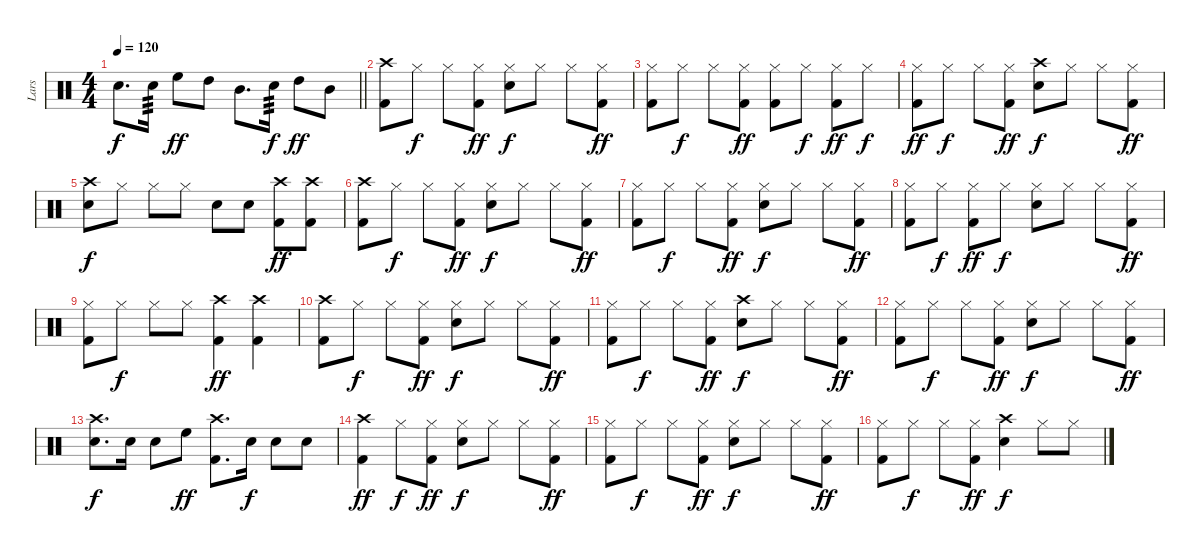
\track ("Lars" "Lars") {instrument percussion}
\staff {score}
\articulation defaults
\ts (4 4)
\tempo 120
\clef neutral
\barLineRight lightlight
\ks c "Snare (hit) 2".8{d dy f} "Snare (hit) 2".16{tp 3} "High Floor Tom (hit)".8{dy ff} "High Tom (hit)".8 "Mid Tom (hit)".8{d} "Snare (hit) 2".16{tp 3 dy f} "High Tom (hit)".8{dy ff} "Mid Tom (hit)".8
|
("Crash high (hit)" "Kick (hit) 2").8 "Hi-Hat (closed)".8{dy f} "Hi-Hat (closed)".8 ("Hi-Hat (closed)" "Kick (hit) 2").8{dy ff} ("Hi-Hat (closed)" "Snare (hit) 2").8{dy f} "Hi-Hat (closed)".8 "Hi-Hat (closed)".8 ("Hi-Hat (closed)" "Kick (hit) 2").8{dy ff} |
("Hi-Hat (closed)" "Kick (hit) 2").8 "Hi-Hat (closed)".8{dy f} "Hi-Hat (closed)".8 ("Hi-Hat (closed)" "Kick (hit) 2").8{dy ff} ("Hi-Hat (closed)" "Kick (hit) 2").8 "Hi-Hat (closed)".8{dy f} ("Hi-Hat (closed)" "Kick (hit) 2").8{dy ff} "Hi-Hat (closed)".8{dy f} |
("Hi-Hat (closed)" "Kick (hit) 2").8{dy ff} "Hi-Hat (closed)".8{dy f} "Hi-Hat (closed)".8 ("Hi-Hat (closed)" "Kick (hit) 2").8{dy ff} ("Crash high (hit)" "Snare (hit) 2").8{dy f} "Hi-Hat (closed)".8 "Hi-Hat (closed)".8 ("Hi-Hat (closed)" "Kick (hit) 2").8{dy ff} |
("Crash high (hit)" "Snare (hit) 2").8{dy f} "Hi-Hat (closed)".8 "Hi-Hat (closed)".8 "Hi-Hat (closed)".8 "Snare (hit) 2".8 "Snare (hit) 2".8 ("Crash high (hit)" "Kick (hit) 2").8{dy ff} ("Crash high (hit)" "Kick (hit) 2").8 |
("Crash high (hit)" "Kick (hit) 2").8 "Hi-Hat (closed)".8{dy f} "Hi-Hat (closed)".8 ("Hi-Hat (closed)" "Kick (hit) 2").8{dy ff} ("Hi-Hat (closed)" "Snare (hit) 2").8{dy f} "Hi-Hat (closed)".8 "Hi-Hat (closed)".8 ("Hi-Hat (closed)" "Kick (hit) 2").8{dy ff} |
("Hi-Hat (closed)" "Kick (hit) 2").8 "Hi-Hat (closed)".8{dy f} "Hi-Hat (closed)".8 ("Hi-Hat (closed)" "Kick (hit) 2").8{dy ff} ("Hi-Hat (closed)" "Snare (hit) 2").8{dy f} "Hi-Hat (closed)".8 "Hi-Hat (closed)".8 ("Hi-Hat (closed)" "Kick (hit) 2").8{dy ff} |
("Hi-Hat (closed)" "Kick (hit) 2").8 "Hi-Hat (closed)".8{dy f} ("Hi-Hat (closed)" "Kick (hit) 2").8{dy ff} "Hi-Hat (closed)".8{dy f} ("Hi-Hat (closed)" "Snare (hit) 2").8 "Hi-Hat (closed)".8 "Hi-Hat (closed)".8 ("Hi-Hat (closed)" "Kick (hit) 2").8{dy ff} |
("Hi-Hat (closed)" "Kick (hit) 2").8 "Hi-Hat (closed)".8{dy f} "Hi-Hat (closed)".8 "Hi-Hat (closed)".8 ("Crash high (hit)" "Kick (hit) 2").4{dy ff} ("Crash high (hit)" "Kick (hit) 2").4 |
("Crash high (hit)" "Kick (hit) 2").8 "Hi-Hat (closed)".8{dy f} "Hi-Hat (closed)".8 ("Hi-Hat (closed)" "Kick (hit) 2").8{dy ff} ("Hi-Hat (closed)" "Snare (hit) 2").8{dy f} "Hi-Hat (closed)".8 "Hi-Hat (closed)".8 ("Hi-Hat (closed)" "Kick (hit) 2").8{dy ff} |
("Hi-Hat (closed)" "Kick (hit) 2").8 "Hi-Hat (closed)".8{dy f} "Hi-Hat (closed)".8 ("Hi-Hat (closed)" "Kick (hit) 2").8{dy ff} ("Crash high (hit)" "Snare (hit) 2").8{dy f} "Hi-Hat (closed)".8 "Hi-Hat (closed)".8 ("Hi-Hat (closed)" "Kick (hit) 2").8{dy ff} |
("Hi-Hat (closed)" "Kick (hit) 2").8 "Hi-Hat (closed)".8{dy f} "Hi-Hat (closed)".8 ("Hi-Hat (closed)" "Kick (hit) 2").8{dy ff} ("Hi-Hat (closed)" "Snare (hit) 2").8{dy f} "Hi-Hat (closed)".8 "Hi-Hat (closed)".8 ("Hi-Hat (closed)" "Kick (hit) 2").8{dy ff} |
("Crash high (hit)" "Snare (hit) 2").8{d dy f} "Snare (hit) 2".16 "Snare (hit) 2".8 "High Floor Tom (hit)".8{dy ff} ("Crash high (hit)" "Kick (hit) 2").8{d} "Snare (hit) 2".16{dy f} "Snare (hit) 2".8 "Snare (hit) 2".8 |
("Crash high (hit)" "Kick (hit) 2").4{dy ff} "Hi-Hat (closed)".8{dy f} ("Hi-Hat (closed)" "Kick (hit) 2").8{dy ff} ("Hi-Hat (closed)" "Snare (hit) 2").8{dy f} "Hi-Hat (closed)".8 "Hi-Hat (closed)".8 ("Hi-Hat (closed)" "Kick (hit) 2").8{dy ff} |
("Hi-Hat (closed)" "Kick (hit) 2").8 "Hi-Hat (closed)".8{dy f} "Hi-Hat (closed)".8 ("Hi-Hat (closed)" "Kick (hit) 2").8{dy ff} ("Hi-Hat (closed)" "Snare (hit) 2").8{dy f} "Hi-Hat (closed)".8 "Hi-Hat (closed)".8 ("Hi-Hat (closed)" "Kick (hit) 2").8{dy ff} |
("Hi-Hat (closed)" "Kick (hit) 2").8 "Hi-Hat (closed)".8{dy f} "Hi-Hat (closed)".8 ("Hi-Hat (closed)" "Kick (hit) 2").8{dy ff} ("Crash high (hit)" "Snare (hit) 2").4{dy f} "Hi-Hat (closed)".8 "Hi-Hat (closed)".8
